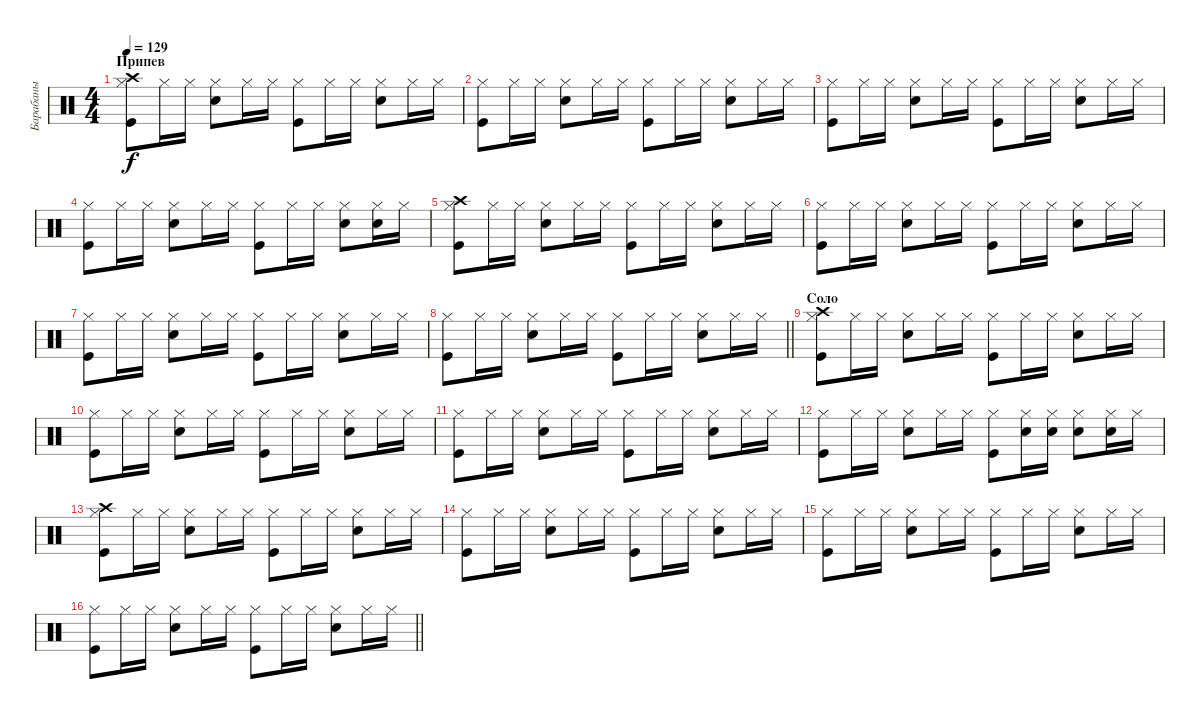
\track ("Барабаны" "Барабаны") {instrument percussion}
\staff {score}
\articulation defaults
\ts (4 4)
\section ("" "Припев")
\tempo 129
\clef neutral
\ks c
("Kick (hit)" "Hi-Hat (closed)" "Crash high (hit)").8{dy f} "Hi-Hat (closed)".16 "Hi-Hat (closed)".16 ("Snare (hit) 2" "Hi-Hat (closed)").8 "Hi-Hat (closed)".16 "Hi-Hat (closed)".16 ("Kick (hit)" "Hi-Hat (closed)").8 "Hi-Hat (closed)".16 "Hi-Hat (closed)".16 ("Snare (hit) 2" "Hi-Hat (closed)").8 "Hi-Hat (closed)".16 "Hi-Hat (closed)".16 |
("Kick (hit)" "Hi-Hat (closed)").8 "Hi-Hat (closed)".16 "Hi-Hat (closed)".16 ("Snare (hit) 2" "Hi-Hat (closed)").8 "Hi-Hat (closed)".16 "Hi-Hat (closed)".16 ("Kick (hit)" "Hi-Hat (closed)").8 "Hi-Hat (closed)".16 "Hi-Hat (closed)".16 ("Snare (hit) 2" "Hi-Hat (closed)").8 "Hi-Hat (closed)".16 "Hi-Hat (closed)".16 |
("Kick (hit)" "Hi-Hat (closed)").8 "Hi-Hat (closed)".16 "Hi-Hat (closed)".16 ("Snare (hit) 2" "Hi-Hat (closed)").8 "Hi-Hat (closed)".16 "Hi-Hat (closed)".16 ("Kick (hit)" "Hi-Hat (closed)").8 "Hi-Hat (closed)".16 "Hi-Hat (closed)".16 ("Snare (hit) 2" "Hi-Hat (closed)").8 "Hi-Hat (closed)".16 "Hi-Hat (closed)".16 |
("Kick (hit)" "Hi-Hat (closed)").8 "Hi-Hat (closed)".16 "Hi-Hat (closed)".16 ("Snare (hit) 2" "Hi-Hat (closed)").8 "Hi-Hat (closed)".16 "Hi-Hat (closed)".16 ("Kick (hit)" "Hi-Hat (closed)").8 "Hi-Hat (closed)".16 "Hi-Hat (closed)".16 ("Snare (hit) 2" "Hi-Hat (closed)").8 ("Snare (hit) 2" "Hi-Hat (closed)").16 "Hi-Hat (closed)".16 |
("Kick (hit)" "Hi-Hat (closed)" "Crash high (hit)").8 "Hi-Hat (closed)".16 "Hi-Hat (closed)".16 ("Snare (hit) 2" "Hi-Hat (closed)").8 "Hi-Hat (closed)".16 "Hi-Hat (closed)".16 ("Kick (hit)" "Hi-Hat (closed)").8 "Hi-Hat (closed)".16 "Hi-Hat (closed)".16 ("Snare (hit) 2" "Hi-Hat (closed)").8 "Hi-Hat (closed)".16 "Hi-Hat (closed)".16 |
("Kick (hit)" "Hi-Hat (closed)").8 "Hi-Hat (closed)".16 "Hi-Hat (closed)".16 ("Snare (hit) 2" "Hi-Hat (closed)").8 "Hi-Hat (closed)".16 "Hi-Hat (closed)".16 ("Kick (hit)" "Hi-Hat (closed)").8 "Hi-Hat (closed)".16 "Hi-Hat (closed)".16 ("Snare (hit) 2" "Hi-Hat (closed)").8 "Hi-Hat (closed)".16 "Hi-Hat (closed)".16 |
("Kick (hit)" "Hi-Hat (closed)").8 "Hi-Hat (closed)".16 "Hi-Hat (closed)".16 ("Snare (hit) 2" "Hi-Hat (closed)").8 "Hi-Hat (closed)".16 "Hi-Hat (closed)".16 ("Kick (hit)" "Hi-Hat (closed)").8 "Hi-Hat (closed)".16 "Hi-Hat (closed)".16 ("Snare (hit) 2" "Hi-Hat (closed)").8 "Hi-Hat (closed)".16 "Hi-Hat (closed)".16 |
\barLineRight lightlight
("Kick (hit)" "Hi-Hat (closed)").8 "Hi-Hat (closed)".16 "Hi-Hat (closed)".16 ("Snare (hit) 2" "Hi-Hat (closed)").8 "Hi-Hat (closed)".16 "Hi-Hat (closed)".16 ("Kick (hit)" "Hi-Hat (closed)").8 "Hi-Hat (closed)".16 "Hi-Hat (closed)".16 ("Snare (hit) 2" "Hi-Hat (closed)").8 "Hi-Hat (closed)".16 "Hi-Hat (closed)".16 |
\section ("" "Соло")
("Kick (hit)" "Hi-Hat (closed)" "Crash high (hit)").8 "Hi-Hat (closed)".16 "Hi-Hat (closed)".16 ("Snare (hit) 2" "Hi-Hat (closed)").8 "Hi-Hat (closed)".16 "Hi-Hat (closed)".16 ("Kick (hit)" "Hi-Hat (closed)").8 "Hi-Hat (closed)".16 "Hi-Hat (closed)".16 ("Snare (hit) 2" "Hi-Hat (closed)").8 "Hi-Hat (closed)".16 "Hi-Hat (closed)".16 |
("Kick (hit)" "Hi-Hat (closed)").8 "Hi-Hat (closed)".16 "Hi-Hat (closed)".16 ("Snare (hit) 2" "Hi-Hat (closed)").8 "Hi-Hat (closed)".16 "Hi-Hat (closed)".16 ("Kick (hit)" "Hi-Hat (closed)").8 "Hi-Hat (closed)".16 "Hi-Hat (closed)".16 ("Snare (hit) 2" "Hi-Hat (closed)").8 "Hi-Hat (closed)".16 "Hi-Hat (closed)".16 |
("Kick (hit)" "Hi-Hat (closed)").8 "Hi-Hat (closed)".16 "Hi-Hat (closed)".16 ("Snare (hit) 2" "Hi-Hat (closed)").8 "Hi-Hat (closed)".16 "Hi-Hat (closed)".16 ("Kick (hit)" "Hi-Hat (closed)").8 "Hi-Hat (closed)".16 "Hi-Hat (closed)".16 ("Snare (hit) 2" "Hi-Hat (closed)").8 "Hi-Hat (closed)".16 "Hi-Hat (closed)".16 |
("Kick (hit)" "Hi-Hat (closed)").8 "Hi-Hat (closed)".16 "Hi-Hat (closed)".16 ("Snare (hit) 2" "Hi-Hat (closed)").8 "Hi-Hat (closed)".16 "Hi-Hat (closed)".16 ("Kick (hit)" "Hi-Hat (closed)").8 ("Snare (hit) 2" "Hi-Hat (closed)").16 ("Snare (hit) 2" "Hi-Hat (closed)").16 ("Snare (hit) 2" "Hi-Hat (closed)").8 ("Snare (hit) 2" "Hi-Hat (closed)").16 "Hi-Hat (closed)".16 |
("Kick (hit)" "Hi-Hat (closed)" "Crash high (hit)").8 "Hi-Hat (closed)".16 "Hi-Hat (closed)".16 ("Snare (hit) 2" "Hi-Hat (closed)").8 "Hi-Hat (closed)".16 "Hi-Hat (closed)".16 ("Kick (hit)" "Hi-Hat (closed)").8 "Hi-Hat (closed)".16 "Hi-Hat (closed)".16 ("Snare (hit) 2" "Hi-Hat (closed)").8 "Hi-Hat (closed)".16 "Hi-Hat (closed)".16 |
("Kick (hit)" "Hi-Hat (closed)").8 "Hi-Hat (closed)".16 "Hi-Hat (closed)".16 ("Snare (hit) 2" "Hi-Hat (closed)").8 "Hi-Hat (closed)".16 "Hi-Hat (closed)".16 ("Kick (hit)" "Hi-Hat (closed)").8 "Hi-Hat (closed)".16 "Hi-Hat (closed)".16 ("Snare (hit) 2" "Hi-Hat (closed)").8 "Hi-Hat (closed)".16 "Hi-Hat (closed)".16 |
("Kick (hit)" "Hi-Hat (closed)").8 "Hi-Hat (closed)".16 "Hi-Hat (closed)".16 ("Snare (hit) 2" "Hi-Hat (closed)").8 "Hi-Hat (closed)".16 "Hi-Hat (closed)".16 ("Kick (hit)" "Hi-Hat (closed)").8 "Hi-Hat (closed)".16 "Hi-Hat (closed)".16 ("Snare (hit) 2" "Hi-Hat (closed)").8 "Hi-Hat (closed)".16 "Hi-Hat (closed)".16 |
\barLineRight lightlight
("Kick (hit)" "Hi-Hat (closed)").8 "Hi-Hat (closed)".16 "Hi-Hat (closed)".16 ("Snare (hit) 2" "Hi-Hat (closed)").8 "Hi-Hat (closed)".16 "Hi-Hat (closed)".16 ("Kick (hit)" "Hi-Hat (closed)").8 "Hi-Hat (closed)".16 "Hi-Hat (closed)".16 ("Snare (hit) 2" "Hi-Hat (closed)").8 "Hi-Hat (closed)".16 "Hi-Hat (closed)".16
